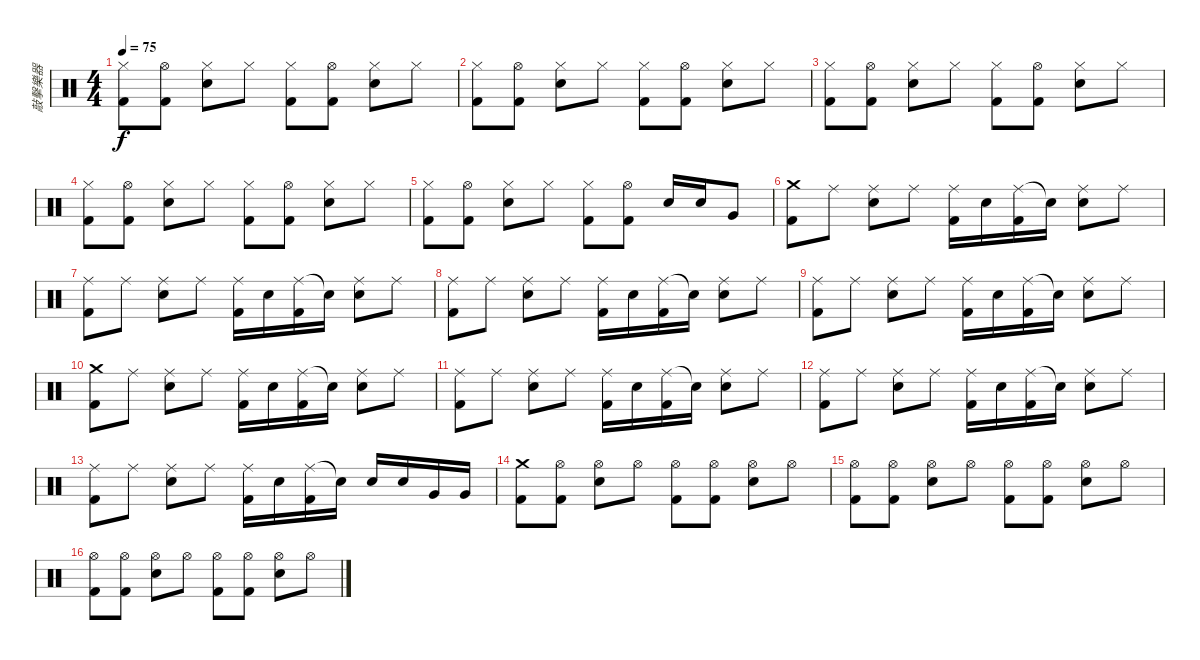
\track ("敲擊樂器" "敲擊樂器") {instrument percussion}
\staff {score}
\articulation defaults
\ts (4 4)
\tempo 75
\clef neutral
\ks c
("Hi-Hat (closed)" "Kick (hit) 2").8{dy f} ("Hi-Hat (open)" "Kick (hit) 2").8 ("Hi-Hat (closed)" "Snare (hit) 2").8 "Hi-Hat (closed)".8 ("Hi-Hat (closed)" "Kick (hit) 2").8 ("Hi-Hat (open)" "Kick (hit) 2").8 ("Hi-Hat (closed)" "Snare (hit) 2").8 "Hi-Hat (closed)".8 |
("Hi-Hat (closed)" "Kick (hit) 2").8 ("Hi-Hat (open)" "Kick (hit) 2").8 ("Hi-Hat (closed)" "Snare (hit) 2").8 "Hi-Hat (closed)".8 ("Hi-Hat (closed)" "Kick (hit) 2").8 ("Hi-Hat (open)" "Kick (hit) 2").8 ("Hi-Hat (closed)" "Snare (hit) 2").8 "Hi-Hat (closed)".8 |
("Hi-Hat (closed)" "Kick (hit) 2").8 ("Hi-Hat (open)" "Kick (hit) 2").8 ("Hi-Hat (closed)" "Snare (hit) 2").8 "Hi-Hat (closed)".8 ("Hi-Hat (closed)" "Kick (hit) 2").8 ("Hi-Hat (open)" "Kick (hit) 2").8 ("Hi-Hat (closed)" "Snare (hit) 2").8 "Hi-Hat (closed)".8 |
("Hi-Hat (closed)" "Kick (hit) 2").8 ("Hi-Hat (open)" "Kick (hit) 2").8 ("Hi-Hat (closed)" "Snare (hit) 2").8 "Hi-Hat (closed)".8 ("Hi-Hat (closed)" "Kick (hit) 2").8 ("Hi-Hat (open)" "Kick (hit) 2").8 ("Hi-Hat (closed)" "Snare (hit) 2").8 "Hi-Hat (closed)".8 |
("Hi-Hat (closed)" "Kick (hit) 2").8 ("Hi-Hat (open)" "Kick (hit) 2").8 ("Hi-Hat (closed)" "Snare (hit) 2").8 "Hi-Hat (closed)".8 ("Hi-Hat (closed)" "Kick (hit) 2").8 ("Hi-Hat (open)" "Kick (hit) 2").8 "Snare (hit) 2".16 "Snare (hit) 2".16 "Very Low Tom (hit)".8 |
("Crash medium (hit)" "Kick (hit) 2").8 "Ride (middle)".8 ("Ride (middle)" "Snare (hit) 2").8 "Ride (middle)".8 ("Ride (middle)" "Kick (hit) 2").16 "Snare (hit) 2".16 ("Ride (middle)" "Kick (hit) 2").16 "Snare (hit)"{t}.16 ("Ride (middle)" "Snare (hit) 2").8 "Ride (middle)".8 |
("Ride (middle)" "Kick (hit) 2").8 "Ride (middle)".8 ("Ride (middle)" "Snare (hit) 2").8 "Ride (middle)".8 ("Ride (middle)" "Kick (hit) 2").16 "Snare (hit) 2".16 ("Ride (middle)" "Kick (hit) 2").16 "Snare (hit)"{t}.16 ("Ride (middle)" "Snare (hit) 2").8 "Ride (middle)".8 |
("Ride (middle)" "Kick (hit) 2").8 "Ride (middle)".8 ("Ride (middle)" "Snare (hit) 2").8 "Ride (middle)".8 ("Ride (middle)" "Kick (hit) 2").16 "Snare (hit) 2".16 ("Ride (middle)" "Kick (hit) 2").16 "Snare (hit)"{t}.16 ("Ride (middle)" "Snare (hit) 2").8 "Ride (middle)".8 |
("Ride (middle)" "Kick (hit) 2").8 "Ride (middle)".8 ("Ride (middle)" "Snare (hit) 2").8 "Ride (middle)".8 ("Ride (middle)" "Kick (hit) 2").16 "Snare (hit) 2".16 ("Ride (middle)" "Kick (hit) 2").16 "Snare (hit)"{t}.16 ("Ride (middle)" "Snare (hit) 2").8 "Ride (middle)".8 |
("Crash medium (hit)" "Kick (hit) 2").8 "Ride (middle)".8 ("Ride (middle)" "Snare (hit) 2").8 "Ride (middle)".8 ("Ride (middle)" "Kick (hit) 2").16 "Snare (hit) 2".16 ("Ride (middle)" "Kick (hit) 2").16 "Snare (hit)"{t}.16 ("Ride (middle)" "Snare (hit) 2").8 "Ride (middle)".8 |
("Ride (middle)" "Kick (hit) 2").8 "Ride (middle)".8 ("Ride (middle)" "Snare (hit) 2").8 "Ride (middle)".8 ("Ride (middle)" "Kick (hit) 2").16 "Snare (hit) 2".16 ("Ride (middle)" "Kick (hit) 2").16 "Snare (hit)"{t}.16 ("Ride (middle)" "Snare (hit) 2").8 "Ride (middle)".8 |
("Ride (middle)" "Kick (hit) 2").8 "Ride (middle)".8 ("Ride (middle)" "Snare (hit) 2").8 "Ride (middle)".8 ("Ride (middle)" "Kick (hit) 2").16 "Snare (hit) 2".16 ("Ride (middle)" "Kick (hit) 2").16 "Snare (hit)"{t}.16 ("Ride (middle)" "Snare (hit) 2").8 "Ride (middle)".8 |
("Ride (middle)" "Kick (hit) 2").8 "Ride (middle)".8 ("Ride (middle)" "Snare (hit) 2").8 "Ride (middle)".8 ("Ride (middle)" "Kick (hit) 2").16 "Snare (hit) 2".16 ("Ride (middle)" "Kick (hit) 2").16 "Snare (hit)"{t}.16 "Snare (hit) 2".16 "Snare (hit) 2".16 "Very Low Tom (hit)".16 "Very Low Tom (hit)".16 |
("Crash medium (hit)" "Kick (hit) 2").8 ("Hi-Hat (open)" "Kick (hit) 2").8 ("Hi-Hat (open)" "Snare (hit) 2").8 "Hi-Hat (open)".8 ("Hi-Hat (open)" "Kick (hit) 2").8 ("Hi-Hat (open)" "Kick (hit) 2").8 ("Hi-Hat (open)" "Snare (hit) 2").8 "Hi-Hat (open)".8 |
("Hi-Hat (open)" "Kick (hit) 2").8 ("Hi-Hat (open)" "Kick (hit) 2").8 ("Hi-Hat (open)" "Snare (hit) 2").8 "Hi-Hat (open)".8 ("Hi-Hat (open)" "Kick (hit) 2").8 ("Hi-Hat (open)" "Kick (hit) 2").8 ("Hi-Hat (open)" "Snare (hit) 2").8 "Hi-Hat (open)".8 |
("Hi-Hat (open)" "Kick (hit) 2").8 ("Hi-Hat (open)" "Kick (hit) 2").8 ("Hi-Hat (open)" "Snare (hit) 2").8 "Hi-Hat (open)".8 ("Hi-Hat (open)" "Kick (hit) 2").8 ("Hi-Hat (open)" "Kick (hit) 2").8 ("Hi-Hat (open)" "Snare (hit) 2").8 "Hi-Hat (open)".8
